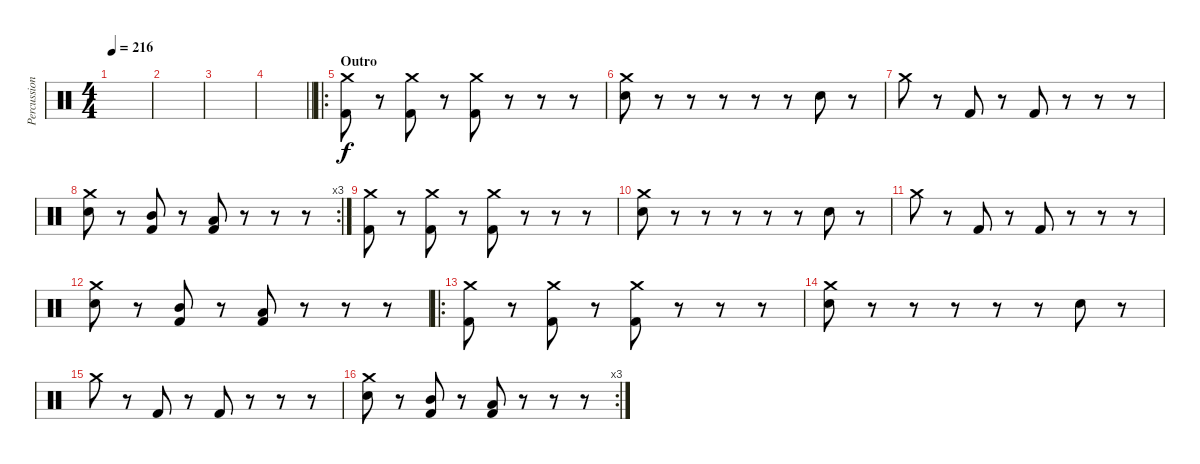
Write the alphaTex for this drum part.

\track ("Percussions" "Percussion") {instrument percussion}
\staff {score}
\articulation defaults
\ts (4 4)
\tempo 216
\clef neutral
\ks c
|
|
|
\barLineRight lightlight
|
\ro
\section ("" "Outro")
("Crash medium (hit)" "Kick (hit) 2").8 r.8 ("Crash medium (hit)" "Kick (hit) 2").8 r.8 ("Crash medium (hit)" "Kick (hit) 2").8 r.8 r.8 r.8 |
("Crash medium (hit)" "Electric Snare (hit)").8 r.8 r.8 r.8 r.8 r.8 "Electric Snare (hit)".8 r.8 |
"Crash medium (hit)".8 r.8 "Kick (hit) 2".8 r.8 "Kick (hit) 2".8 r.8 r.8 r.8 |
\rc 3
("Crash medium (hit)" "Electric Snare (hit)").8 r.8 ("Mid Tom (hit)" "Kick (hit) 2").8 r.8 ("Low Tom (hit)" "Kick (hit) 2").8 r.8 r.8 r.8 |
("Crash medium (hit)" "Kick (hit) 2").8 r.8 ("Crash medium (hit)" "Kick (hit) 2").8 r.8 ("Crash medium (hit)" "Kick (hit) 2").8 r.8 r.8 r.8 |
("Crash medium (hit)" "Electric Snare (hit)").8 r.8 r.8 r.8 r.8 r.8 "Electric Snare (hit)".8 r.8 |
"Crash medium (hit)".8 r.8 "Kick (hit) 2".8 r.8 "Kick (hit) 2".8 r.8 r.8 r.8 |
("Crash medium (hit)" "Electric Snare (hit)").8 r.8 ("Mid Tom (hit)" "Kick (hit) 2").8 r.8 ("Low Tom (hit)" "Kick (hit) 2").8 r.8 r.8 r.8 |
\ro
("Crash medium (hit)" "Kick (hit) 2").8 r.8 ("Crash medium (hit)" "Kick (hit) 2").8 r.8 ("Crash medium (hit)" "Kick (hit) 2").8 r.8 r.8 r.8 |
("Crash medium (hit)" "Electric Snare (hit)").8 r.8 r.8 r.8 r.8 r.8 "Electric Snare (hit)".8 r.8 |
"Crash medium (hit)".8 r.8 "Kick (hit) 2".8 r.8 "Kick (hit) 2".8 r.8 r.8 r.8 |
\rc 3
("Crash medium (hit)" "Electric Snare (hit)").8 r.8 ("Mid Tom (hit)" "Kick (hit) 2").8 r.8 ("Low Tom (hit)" "Kick (hit) 2").8 r.8 r.8 r.8
